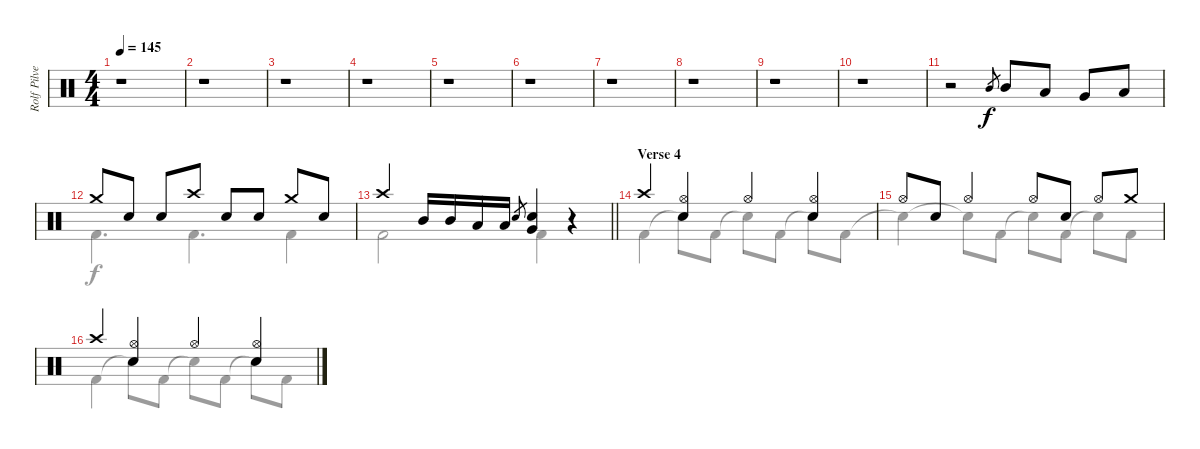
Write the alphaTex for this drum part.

\track ("Rolf Pilve - drums" "Rolf Pilve") {instrument percussion}
\staff {score}
\articulation defaults
\voice
\ts (4 4)
\tempo 145
\clef neutral
\ks aminor
r.1{dy f} |
r.1 |
r.1 |
r.1 |
r.1 |
r.1 |
r.1 |
r.1 |
r.1 |
r.1 |
r.2 "Mid Tom (hit)".8{gr} "Mid Tom (hit)".8 "Low Tom (hit)".8 "Very Low Tom (hit)".8 "Low Floor Tom (hit)".8 |
"Crash medium (hit)".8 "Electric Snare (hit)".8 "Electric Snare (hit)".8 "Crash high (hit)".8 "Electric Snare (hit)".8 "Electric Snare (hit)".8 "Crash medium (hit)".8 "Electric Snare (hit)".8 |
\barLineRight lightlight "Crash high (hit)".4 "Mid Tom (hit)".16 "Mid Tom (hit)".16 "Low Tom (hit)".16 "Low Tom (hit)".16 "Electric Snare (hit)".8{gr}
("Very Low Tom (hit)" "Electric Snare (hit)").4 r.4 |
\section ("" "Verse 4")
"Crash high (hit)".4 ("Hi-Hat (open)" "Electric Snare (hit)").4 "Hi-Hat (open)".4 ("Hi-Hat (open)" "Electric Snare (hit)").4 |
"Hi-Hat (open)".8 "Electric Snare (hit)".8 "Hi-Hat (open)".4 "Hi-Hat (open)".8 "Electric Snare (hit)".8 "Hi-Hat (open)".8 "Crash medium (hit)".8 |
"Crash high (hit)".4 ("Hi-Hat (open)" "Electric Snare (hit)").4 "Hi-Hat (open)".4 ("Hi-Hat (open)" "Electric Snare (hit)").4
\voice
\clef neutral
\ottava regular
\simile none
\ks aminor
|
|
|
|
|
|
|
|
|
|
|
"Kick (hit) 2".4{d} "Kick (hit) 2".4{d} "Kick (hit) 2".4 |
\barLineRight lightlight "Kick (hit) 2".2 "Kick (hit) 2".4
r.4 |
"Kick (hit) 2".4 "Snare (hit)"{t}.8 "Kick (hit) 2".8 "Snare (hit)"{t}.8 "Kick (hit) 2".8 "Snare (hit)"{t}.8 "Kick (hit) 2".8 |
"Snare (hit)"{t}.4 "Snare (hit)"{t}.8 "Kick (hit) 2".8 "Snare (hit)"{t}.8 "Kick (hit) 2".8 "Snare (hit)"{t}.8 "Kick (hit) 2".8 |
"Kick (hit) 2".4 "Snare (hit)"{t}.8 "Kick (hit) 2".8 "Snare (hit)"{t}.8 "Kick (hit) 2".8 "Snare (hit)"{t}.8 "Kick (hit) 2".8
